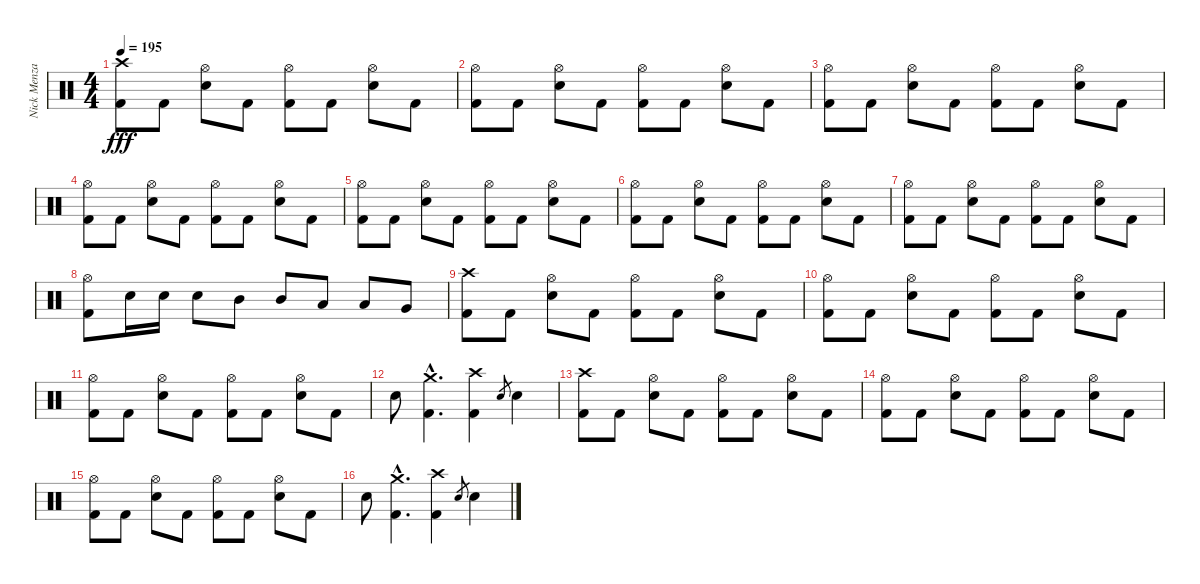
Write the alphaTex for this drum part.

\track ("Nick Menza" "Nick Menza") {instrument percussion}
\staff {score}
\articulation defaults
\ts (4 4)
\tempo 195
\clef neutral
\ks c
("Kick (hit) 2" "Crash high (hit)").8{dy fff} "Kick (hit) 2".8 ("Electric Snare (hit)" "Hi-Hat (open)").8 "Kick (hit) 2".8 ("Kick (hit) 2" "Hi-Hat (open)").8 "Kick (hit) 2".8 ("Electric Snare (hit)" "Hi-Hat (open)").8 "Kick (hit) 2".8 |
("Kick (hit) 2" "Hi-Hat (open)").8 "Kick (hit) 2".8 ("Electric Snare (hit)" "Hi-Hat (open)").8 "Kick (hit) 2".8 ("Kick (hit) 2" "Hi-Hat (open)").8 "Kick (hit) 2".8 ("Electric Snare (hit)" "Hi-Hat (open)").8 "Kick (hit) 2".8 |
("Kick (hit) 2" "Hi-Hat (open)").8 "Kick (hit) 2".8 ("Electric Snare (hit)" "Hi-Hat (open)").8 "Kick (hit) 2".8 ("Kick (hit) 2" "Hi-Hat (open)").8 "Kick (hit) 2".8 ("Electric Snare (hit)" "Hi-Hat (open)").8 "Kick (hit) 2".8 |
("Kick (hit) 2" "Hi-Hat (open)").8 "Kick (hit) 2".8 ("Electric Snare (hit)" "Hi-Hat (open)").8 "Kick (hit) 2".8 ("Kick (hit) 2" "Hi-Hat (open)").8 "Kick (hit) 2".8 ("Electric Snare (hit)" "Hi-Hat (open)").8 "Kick (hit) 2".8 |
("Kick (hit) 2" "Hi-Hat (open)").8 "Kick (hit) 2".8 ("Electric Snare (hit)" "Hi-Hat (open)").8 "Kick (hit) 2".8 ("Kick (hit) 2" "Hi-Hat (open)").8 "Kick (hit) 2".8 ("Electric Snare (hit)" "Hi-Hat (open)").8 "Kick (hit) 2".8 |
("Kick (hit) 2" "Hi-Hat (open)").8 "Kick (hit) 2".8 ("Electric Snare (hit)" "Hi-Hat (open)").8 "Kick (hit) 2".8 ("Kick (hit) 2" "Hi-Hat (open)").8 "Kick (hit) 2".8 ("Electric Snare (hit)" "Hi-Hat (open)").8 "Kick (hit) 2".8 |
("Kick (hit) 2" "Hi-Hat (open)").8 "Kick (hit) 2".8 ("Electric Snare (hit)" "Hi-Hat (open)").8 "Kick (hit) 2".8 ("Kick (hit) 2" "Hi-Hat (open)").8 "Kick (hit) 2".8 ("Electric Snare (hit)" "Hi-Hat (open)").8 "Kick (hit) 2".8 |
("Kick (hit) 2" "Hi-Hat (open)").8 "Electric Snare (hit)".16 "Electric Snare (hit)".16 "Electric Snare (hit)".8 "Mid Tom (hit)".8 "Mid Tom (hit)".8 "Low Tom (hit)".8 "Low Tom (hit)".8 "Very Low Tom (hit)".8 |
("Kick (hit) 2" "Crash high (hit)").8 "Kick (hit) 2".8 ("Electric Snare (hit)" "Hi-Hat (open)").8 "Kick (hit) 2".8 ("Kick (hit) 2" "Hi-Hat (open)").8 "Kick (hit) 2".8 ("Electric Snare (hit)" "Hi-Hat (open)").8 "Kick (hit) 2".8 |
("Kick (hit) 2" "Hi-Hat (open)").8 "Kick (hit) 2".8 ("Electric Snare (hit)" "Hi-Hat (open)").8 "Kick (hit) 2".8 ("Kick (hit) 2" "Hi-Hat (open)").8 "Kick (hit) 2".8 ("Electric Snare (hit)" "Hi-Hat (open)").8 "Kick (hit) 2".8 |
("Kick (hit) 2" "Hi-Hat (open)").8 "Kick (hit) 2".8 ("Electric Snare (hit)" "Hi-Hat (open)").8 "Kick (hit) 2".8 ("Kick (hit) 2" "Hi-Hat (open)").8 "Kick (hit) 2".8 ("Electric Snare (hit)" "Hi-Hat (open)").8 "Kick (hit) 2".8 |
"Electric Snare (hit)".8 ("Kick (hit) 2"{hac} "Crash medium (hit)"{hac}).4{d} ("Kick (hit) 2" "Crash high (hit)").4 "Electric Snare (hit)".8{gr} "Electric Snare (hit)".4 |
("Kick (hit) 2" "Crash high (hit)").8 "Kick (hit) 2".8 ("Electric Snare (hit)" "Hi-Hat (open)").8 "Kick (hit) 2".8 ("Kick (hit) 2" "Hi-Hat (open)").8 "Kick (hit) 2".8 ("Electric Snare (hit)" "Hi-Hat (open)").8 "Kick (hit) 2".8 |
("Kick (hit) 2" "Hi-Hat (open)").8 "Kick (hit) 2".8 ("Electric Snare (hit)" "Hi-Hat (open)").8 "Kick (hit) 2".8 ("Kick (hit) 2" "Hi-Hat (open)").8 "Kick (hit) 2".8 ("Electric Snare (hit)" "Hi-Hat (open)").8 "Kick (hit) 2".8 |
("Kick (hit) 2" "Hi-Hat (open)").8 "Kick (hit) 2".8 ("Electric Snare (hit)" "Hi-Hat (open)").8 "Kick (hit) 2".8 ("Kick (hit) 2" "Hi-Hat (open)").8 "Kick (hit) 2".8 ("Electric Snare (hit)" "Hi-Hat (open)").8 "Kick (hit) 2".8 |
"Electric Snare (hit)".8 ("Kick (hit) 2"{hac} "Crash medium (hit)"{hac}).4{d} ("Kick (hit) 2" "Crash high (hit)").4 "Electric Snare (hit)".8{gr} "Electric Snare (hit)".4
